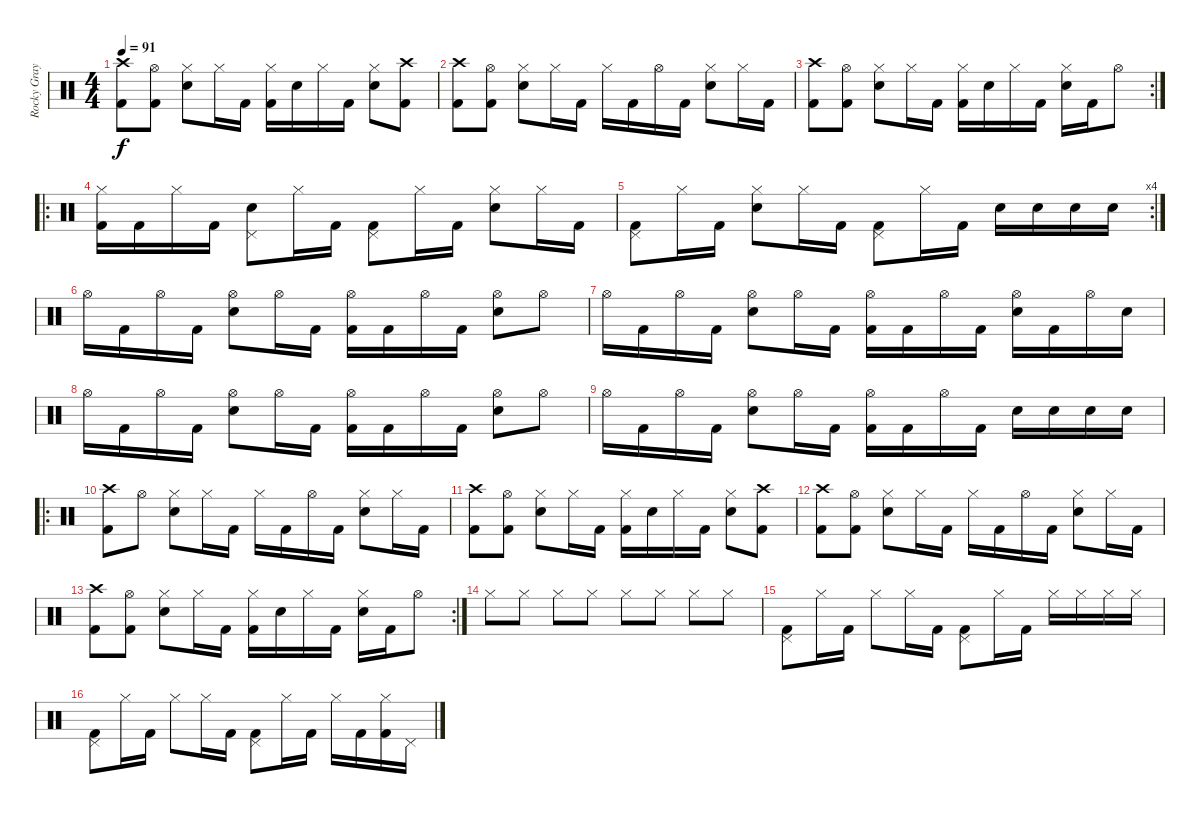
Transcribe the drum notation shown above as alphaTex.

\track ("Rocky Gray (Drums)" "Rocky Gray") {instrument percussion}
\staff {score}
\articulation defaults
\ts (4 4)
\tempo 91
\clef neutral
\ks c
("Crash high (hit)" "Kick (hit) 2").8{dy f} ("Hi-Hat (open)" "Kick (hit) 2").8 ("Hi-Hat (closed)" "Electric Snare (hit)").8 "Hi-Hat (closed)".16 "Kick (hit) 2".16 ("Hi-Hat (closed)" "Kick (hit) 2").16 "Electric Snare (hit)".16 "Hi-Hat (closed)".16 "Kick (hit) 2".16 ("Hi-Hat (closed)" "Electric Snare (hit)").8 ("Crash high (hit)" "Kick (hit) 2").8 |
("Crash high (hit)" "Kick (hit) 2").8 ("Hi-Hat (open)" "Kick (hit) 2").8 ("Hi-Hat (closed)" "Electric Snare (hit)").8 "Hi-Hat (closed)".16 "Kick (hit) 2".16 "Hi-Hat (closed)".16 "Kick (hit) 2".16 "Hi-Hat (open)".16 "Kick (hit) 2".16 ("Hi-Hat (closed)" "Electric Snare (hit)").8 "Hi-Hat (closed)".16 "Kick (hit) 2".16 |
\rc 2
("Crash high (hit)" "Kick (hit) 2").8 ("Hi-Hat (open)" "Kick (hit) 2").8 ("Hi-Hat (closed)" "Electric Snare (hit)").8 "Hi-Hat (closed)".16 "Kick (hit) 2".16 ("Hi-Hat (closed)" "Kick (hit) 2").16 "Electric Snare (hit)".16 "Hi-Hat (closed)".16 "Kick (hit) 2".16 ("Hi-Hat (closed)" "Electric Snare (hit)").16 "Kick (hit) 2".16 "Hi-Hat (open)".8 |
\ro
("Hi-Hat (closed)" "Kick (hit) 2").16 "Kick (hit) 2".16 "Hi-Hat (closed)".16 "Kick (hit) 2".16 ("Pedal Hi-Hat (hit)" "Electric Snare (hit)").8 "Hi-Hat (closed)".16 "Kick (hit) 2".16 ("Pedal Hi-Hat (hit)" "Kick (hit) 2").8 "Hi-Hat (closed)".16 "Kick (hit) 2".16 ("Hi-Hat (closed)" "Electric Snare (hit)").8 "Hi-Hat (closed)".16 "Kick (hit) 2".16 |
\rc 4
("Pedal Hi-Hat (hit)" "Kick (hit) 2").8 "Hi-Hat (closed)".16 "Kick (hit) 2".16 ("Hi-Hat (closed)" "Electric Snare (hit)").8 "Hi-Hat (closed)".16 "Kick (hit) 2".16 ("Pedal Hi-Hat (hit)" "Kick (hit) 2").8 "Hi-Hat (closed)".16 "Kick (hit) 2".16 "Electric Snare (hit)".16 "Electric Snare (hit)".16 "Electric Snare (hit)".16 "Electric Snare (hit)".16 |
"Hi-Hat (open)".16 "Kick (hit) 2".16 "Hi-Hat (open)".16 "Kick (hit) 2".16 ("Hi-Hat (open)" "Electric Snare (hit)").8 "Hi-Hat (open)".16 "Kick (hit) 2".16 ("Hi-Hat (open)" "Kick (hit) 2").16 "Kick (hit) 2".16 "Hi-Hat (open)".16 "Kick (hit) 2".16 ("Hi-Hat (open)" "Electric Snare (hit)").8 "Hi-Hat (open)".8 |
"Hi-Hat (open)".16 "Kick (hit) 2".16 "Hi-Hat (open)".16 "Kick (hit) 2".16 ("Hi-Hat (open)" "Electric Snare (hit)").8 "Hi-Hat (open)".16 "Kick (hit) 2".16 ("Hi-Hat (open)" "Kick (hit) 2").16 "Kick (hit) 2".16 "Hi-Hat (open)".16 "Kick (hit) 2".16 ("Hi-Hat (open)" "Electric Snare (hit)").16 "Kick (hit) 2".16 "Hi-Hat (open)".16 "Electric Snare (hit)".16 |
"Hi-Hat (open)".16 "Kick (hit) 2".16 "Hi-Hat (open)".16 "Kick (hit) 2".16 ("Hi-Hat (open)" "Electric Snare (hit)").8 "Hi-Hat (open)".16 "Kick (hit) 2".16 ("Hi-Hat (open)" "Kick (hit) 2").16 "Kick (hit) 2".16 "Hi-Hat (open)".16 "Kick (hit) 2".16 ("Hi-Hat (open)" "Electric Snare (hit)").8 "Hi-Hat (open)".8 |
"Hi-Hat (open)".16 "Kick (hit) 2".16 "Hi-Hat (open)".16 "Kick (hit) 2".16 ("Hi-Hat (open)" "Electric Snare (hit)").8 "Hi-Hat (open)".16 "Kick (hit) 2".16 ("Hi-Hat (open)" "Kick (hit) 2").16 "Kick (hit) 2".16 "Hi-Hat (open)".16 "Kick (hit) 2".16 "Electric Snare (hit)".16 "Electric Snare (hit)".16 "Electric Snare (hit)".16 "Electric Snare (hit)".16 |
\ro
("Crash high (hit)" "Kick (hit) 2").8 "Hi-Hat (open)".8 ("Hi-Hat (closed)" "Electric Snare (hit)").8 "Hi-Hat (closed)".16 "Kick (hit) 2".16 "Hi-Hat (closed)".16 "Kick (hit) 2".16 "Hi-Hat (open)".16 "Kick (hit) 2".16 ("Hi-Hat (closed)" "Electric Snare (hit)").8 "Hi-Hat (closed)".16 "Kick (hit) 2".16 |
("Crash high (hit)" "Kick (hit) 2").8 ("Hi-Hat (open)" "Kick (hit) 2").8 ("Hi-Hat (closed)" "Electric Snare (hit)").8 "Hi-Hat (closed)".16 "Kick (hit) 2".16 ("Hi-Hat (closed)" "Kick (hit) 2").16 "Electric Snare (hit)".16 "Hi-Hat (closed)".16 "Kick (hit) 2".16 ("Hi-Hat (closed)" "Electric Snare (hit)").8 ("Crash high (hit)" "Kick (hit) 2").8 |
("Crash high (hit)" "Kick (hit) 2").8 ("Hi-Hat (open)" "Kick (hit) 2").8 ("Hi-Hat (closed)" "Electric Snare (hit)").8 "Hi-Hat (closed)".16 "Kick (hit) 2".16 "Hi-Hat (closed)".16 "Kick (hit) 2".16 "Hi-Hat (open)".16 "Kick (hit) 2".16 ("Hi-Hat (closed)" "Electric Snare (hit)").8 "Hi-Hat (closed)".16 "Kick (hit) 2".16 |
\rc 2
("Crash high (hit)" "Kick (hit) 2").8 ("Hi-Hat (open)" "Kick (hit) 2").8 ("Hi-Hat (closed)" "Electric Snare (hit)").8 "Hi-Hat (closed)".16 "Kick (hit) 2".16 ("Hi-Hat (closed)" "Kick (hit) 2").16 "Electric Snare (hit)".16 "Hi-Hat (closed)".16 "Kick (hit) 2".16 ("Hi-Hat (closed)" "Electric Snare (hit)").16 "Kick (hit) 2".16 "Hi-Hat (open)".8 |
"Hi-Hat (closed)".8 "Hi-Hat (closed)".8 "Hi-Hat (closed)".8 "Hi-Hat (closed)".8 "Hi-Hat (closed)".8 "Hi-Hat (closed)".8 "Hi-Hat (closed)".8 "Hi-Hat (closed)".8 |
("Pedal Hi-Hat (hit)" "Kick (hit) 2").8 "Hi-Hat (closed)".16 "Kick (hit) 2".16 "Hi-Hat (closed)".8 "Hi-Hat (closed)".16 "Kick (hit) 2".16 ("Pedal Hi-Hat (hit)" "Kick (hit) 2").8 "Hi-Hat (closed)".16 "Kick (hit) 2".16 "Hi-Hat (closed)".16 "Hi-Hat (closed)".16 "Hi-Hat (closed)".16 "Hi-Hat (closed)".16 |
("Pedal Hi-Hat (hit)" "Kick (hit) 2").8 "Hi-Hat (closed)".16 "Kick (hit) 2".16 "Hi-Hat (closed)".8 "Hi-Hat (closed)".16 "Kick (hit) 2".16 ("Pedal Hi-Hat (hit)" "Kick (hit) 2").8 "Hi-Hat (closed)".16 "Kick (hit) 2".16 "Hi-Hat (closed)".16 "Kick (hit) 2".16 ("Hi-Hat (closed)" "Kick (hit) 2").16 "Pedal Hi-Hat (hit)".16
